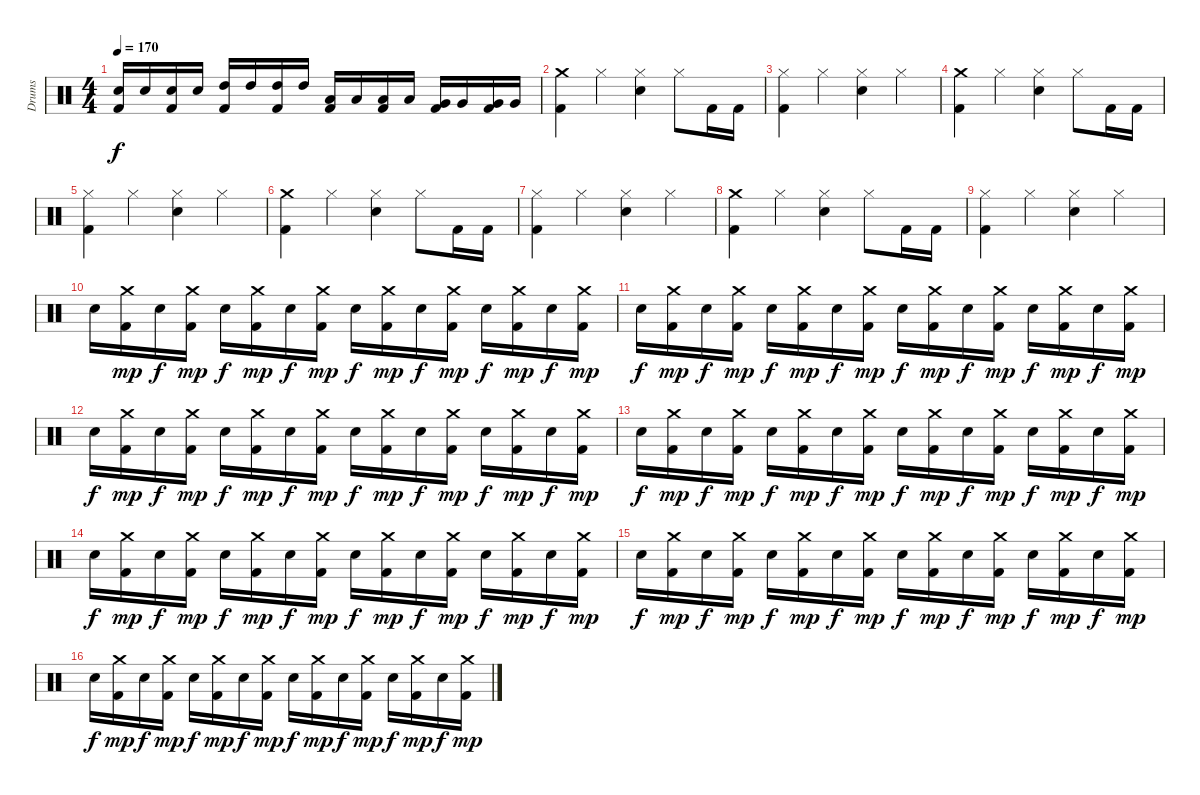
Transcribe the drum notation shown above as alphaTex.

\track ("Drums" "Drums") {instrument percussion}
\staff {score}
\articulation defaults
\ts (4 4)
\tempo 170
\clef neutral
\ks c
("Snare (hit) 2" "Kick (hit) 2").16{dy f} "Snare (hit) 2".16 ("Snare (hit) 2" "Kick (hit) 2").16 "Snare (hit) 2".16 ("High Tom (hit)" "Kick (hit) 2").16 "High Tom (hit)".16 ("High Tom (hit)" "Kick (hit) 2").16 "High Tom (hit)".16 ("Low Tom (hit)" "Kick (hit) 2").16 "Low Tom (hit)".16 ("Low Tom (hit)" "Kick (hit) 2").16 "Low Tom (hit)".16 ("Very Low Tom (hit)" "Kick (hit) 2").16 "Very Low Tom (hit)".16 ("Very Low Tom (hit)" "Kick (hit) 2").16 "Very Low Tom (hit)".16 |
("Kick (hit) 2" "Crash medium (hit)").4 "Hi-Hat (closed)".4 ("Snare (hit) 2" "Hi-Hat (closed)").4 "Hi-Hat (closed)".8 "Kick (hit) 2".16 "Kick (hit) 2".16 |
("Kick (hit) 2" "Hi-Hat (closed)").4 "Hi-Hat (closed)".4 ("Snare (hit) 2" "Hi-Hat (closed)").4 "Hi-Hat (closed)".4 |
("Kick (hit) 2" "Crash medium (hit)").4 "Hi-Hat (closed)".4 ("Snare (hit) 2" "Hi-Hat (closed)").4 "Hi-Hat (closed)".8 "Kick (hit) 2".16 "Kick (hit) 2".16 |
("Kick (hit) 2" "Hi-Hat (closed)").4 "Hi-Hat (closed)".4 ("Snare (hit) 2" "Hi-Hat (closed)").4 "Hi-Hat (closed)".4 |
("Kick (hit) 2" "Crash medium (hit)").4 "Hi-Hat (closed)".4 ("Snare (hit) 2" "Hi-Hat (closed)").4 "Hi-Hat (closed)".8 "Kick (hit) 2".16 "Kick (hit) 2".16 |
("Kick (hit) 2" "Hi-Hat (closed)").4 "Hi-Hat (closed)".4 ("Snare (hit) 2" "Hi-Hat (closed)").4 "Hi-Hat (closed)".4 |
("Kick (hit) 2" "Crash medium (hit)").4 "Hi-Hat (closed)".4 ("Snare (hit) 2" "Hi-Hat (closed)").4 "Hi-Hat (closed)".8 "Kick (hit) 2".16 "Kick (hit) 2".16 |
("Kick (hit) 2" "Hi-Hat (closed)").4 "Hi-Hat (closed)".4 ("Snare (hit) 2" "Hi-Hat (closed)").4 "Hi-Hat (closed)".4 |
"Snare (hit) 2".16 ("Kick (hit) 2" "Crash medium (hit)").16{dy mp} "Snare (hit) 2".16{dy f} ("Kick (hit) 2" "Crash medium (hit)").16{dy mp} "Snare (hit) 2".16{dy f} ("Kick (hit) 2" "Crash medium (hit)").16{dy mp} "Snare (hit) 2".16{dy f} ("Kick (hit) 2" "Crash medium (hit)").16{dy mp} "Snare (hit) 2".16{dy f} ("Kick (hit) 2" "Crash medium (hit)").16{dy mp} "Snare (hit) 2".16{dy f} ("Kick (hit) 2" "Crash medium (hit)").16{dy mp} "Snare (hit) 2".16{dy f} ("Kick (hit) 2" "Crash medium (hit)").16{dy mp} "Snare (hit) 2".16{dy f} ("Kick (hit) 2" "Crash medium (hit)").16{dy mp} |
"Snare (hit) 2".16{dy f} ("Kick (hit) 2" "Crash medium (hit)").16{dy mp} "Snare (hit) 2".16{dy f} ("Kick (hit) 2" "Crash medium (hit)").16{dy mp} "Snare (hit) 2".16{dy f} ("Kick (hit) 2" "Crash medium (hit)").16{dy mp} "Snare (hit) 2".16{dy f} ("Kick (hit) 2" "Crash medium (hit)").16{dy mp} "Snare (hit) 2".16{dy f} ("Kick (hit) 2" "Crash medium (hit)").16{dy mp} "Snare (hit) 2".16{dy f} ("Kick (hit) 2" "Crash medium (hit)").16{dy mp} "Snare (hit) 2".16{dy f} ("Kick (hit) 2" "Crash medium (hit)").16{dy mp} "Snare (hit) 2".16{dy f} ("Kick (hit) 2" "Crash medium (hit)").16{dy mp} |
"Snare (hit) 2".16{dy f} ("Kick (hit) 2" "Crash medium (hit)").16{dy mp} "Snare (hit) 2".16{dy f} ("Kick (hit) 2" "Crash medium (hit)").16{dy mp} "Snare (hit) 2".16{dy f} ("Kick (hit) 2" "Crash medium (hit)").16{dy mp} "Snare (hit) 2".16{dy f} ("Kick (hit) 2" "Crash medium (hit)").16{dy mp} "Snare (hit) 2".16{dy f} ("Kick (hit) 2" "Crash medium (hit)").16{dy mp} "Snare (hit) 2".16{dy f} ("Kick (hit) 2" "Crash medium (hit)").16{dy mp} "Snare (hit) 2".16{dy f} ("Kick (hit) 2" "Crash medium (hit)").16{dy mp} "Snare (hit) 2".16{dy f} ("Kick (hit) 2" "Crash medium (hit)").16{dy mp} |
"Snare (hit) 2".16{dy f} ("Kick (hit) 2" "Crash medium (hit)").16{dy mp} "Snare (hit) 2".16{dy f} ("Kick (hit) 2" "Crash medium (hit)").16{dy mp} "Snare (hit) 2".16{dy f} ("Kick (hit) 2" "Crash medium (hit)").16{dy mp} "Snare (hit) 2".16{dy f} ("Kick (hit) 2" "Crash medium (hit)").16{dy mp} "Snare (hit) 2".16{dy f} ("Kick (hit) 2" "Crash medium (hit)").16{dy mp} "Snare (hit) 2".16{dy f} ("Kick (hit) 2" "Crash medium (hit)").16{dy mp} "Snare (hit) 2".16{dy f} ("Kick (hit) 2" "Crash medium (hit)").16{dy mp} "Snare (hit) 2".16{dy f} ("Kick (hit) 2" "Crash medium (hit)").16{dy mp} |
"Snare (hit) 2".16{dy f} ("Kick (hit) 2" "Crash medium (hit)").16{dy mp} "Snare (hit) 2".16{dy f} ("Kick (hit) 2" "Crash medium (hit)").16{dy mp} "Snare (hit) 2".16{dy f} ("Kick (hit) 2" "Crash medium (hit)").16{dy mp} "Snare (hit) 2".16{dy f} ("Kick (hit) 2" "Crash medium (hit)").16{dy mp} "Snare (hit) 2".16{dy f} ("Kick (hit) 2" "Crash medium (hit)").16{dy mp} "Snare (hit) 2".16{dy f} ("Kick (hit) 2" "Crash medium (hit)").16{dy mp} "Snare (hit) 2".16{dy f} ("Kick (hit) 2" "Crash medium (hit)").16{dy mp} "Snare (hit) 2".16{dy f} ("Kick (hit) 2" "Crash medium (hit)").16{dy mp} |
"Snare (hit) 2".16{dy f} ("Kick (hit) 2" "Crash medium (hit)").16{dy mp} "Snare (hit) 2".16{dy f} ("Kick (hit) 2" "Crash medium (hit)").16{dy mp} "Snare (hit) 2".16{dy f} ("Kick (hit) 2" "Crash medium (hit)").16{dy mp} "Snare (hit) 2".16{dy f} ("Kick (hit) 2" "Crash medium (hit)").16{dy mp} "Snare (hit) 2".16{dy f} ("Kick (hit) 2" "Crash medium (hit)").16{dy mp} "Snare (hit) 2".16{dy f} ("Kick (hit) 2" "Crash medium (hit)").16{dy mp} "Snare (hit) 2".16{dy f} ("Kick (hit) 2" "Crash medium (hit)").16{dy mp} "Snare (hit) 2".16{dy f} ("Kick (hit) 2" "Crash medium (hit)").16{dy mp} |
"Snare (hit) 2".16{dy f} ("Kick (hit) 2" "Crash medium (hit)").16{dy mp} "Snare (hit) 2".16{dy f} ("Kick (hit) 2" "Crash medium (hit)").16{dy mp} "Snare (hit) 2".16{dy f} ("Kick (hit) 2" "Crash medium (hit)").16{dy mp} "Snare (hit) 2".16{dy f} ("Kick (hit) 2" "Crash medium (hit)").16{dy mp} "Snare (hit) 2".16{dy f} ("Kick (hit) 2" "Crash medium (hit)").16{dy mp} "Snare (hit) 2".16{dy f} ("Kick (hit) 2" "Crash medium (hit)").16{dy mp} "Snare (hit) 2".16{dy f} ("Kick (hit) 2" "Crash medium (hit)").16{dy mp} "Snare (hit) 2".16{dy f} ("Kick (hit) 2" "Crash medium (hit)").16{dy mp}
